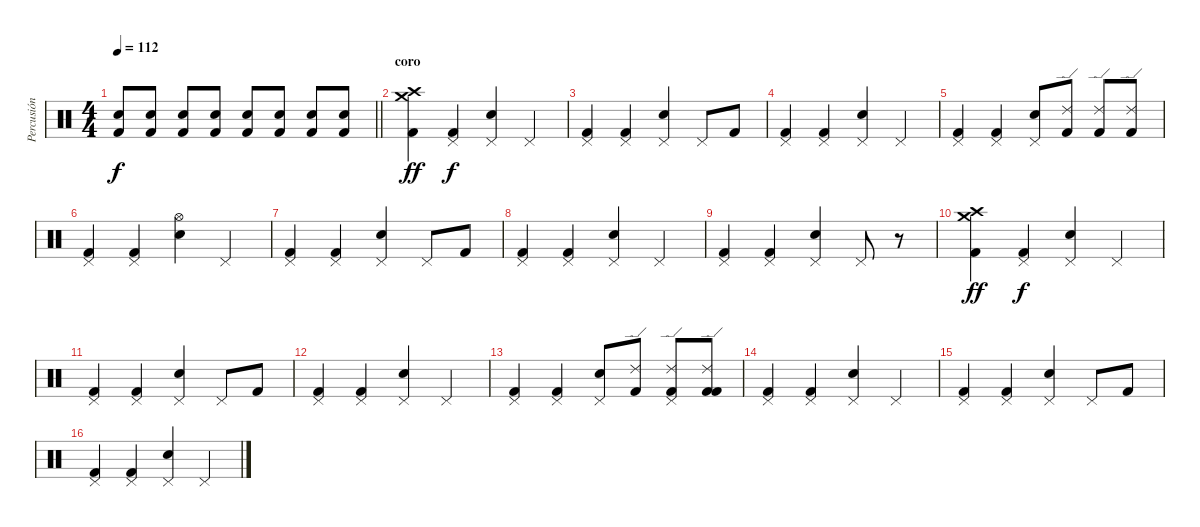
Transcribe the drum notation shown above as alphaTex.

\track ("Percusión" "Percusión") {instrument percussion}
\staff {score}
\articulation defaults
\ts (4 4)
\tempo 112
\clef neutral
\barLineRight lightlight
\ks c
("Kick (hit) 2" "Snare (hit) 2").8{dy f} ("Kick (hit) 2" "Snare (hit) 2").8 ("Kick (hit) 2" "Snare (hit) 2").8 ("Kick (hit) 2" "Snare (hit) 2").8 ("Kick (hit) 2" "Snare (hit) 2").8 ("Kick (hit) 2" "Snare (hit) 2").8 ("Kick (hit) 2" "Snare (hit) 2").8 ("Kick (hit) 2" "Snare (hit) 2").8 |
\section ("" "coro")
("Kick (hit) 2" "Crash medium (hit)" "Crash high (hit)").4{dy ff} ("Kick (hit) 2" "Pedal Hi-Hat (hit)").4{dy f} ("Electric Snare (hit)" "Pedal Hi-Hat (hit)").4 "Pedal Hi-Hat (hit)".4 |
("Kick (hit) 2" "Pedal Hi-Hat (hit)").4 ("Kick (hit) 2" "Pedal Hi-Hat (hit)").4 ("Electric Snare (hit)" "Pedal Hi-Hat (hit)").4 "Pedal Hi-Hat (hit)".8 "Kick (hit) 2".8 |
("Kick (hit) 2" "Pedal Hi-Hat (hit)").4 ("Kick (hit) 2" "Pedal Hi-Hat (hit)").4 ("Electric Snare (hit)" "Pedal Hi-Hat (hit)").4 "Pedal Hi-Hat (hit)".4 |
("Kick (hit) 2" "Pedal Hi-Hat (hit)").4 ("Kick (hit) 2" "Pedal Hi-Hat (hit)").4 ("Electric Snare (hit)" "Pedal Hi-Hat (hit)").8 ("Ride (edge) 2" "Kick (hit) 2").8 ("Ride (edge) 2" "Kick (hit) 2").8 ("Kick (hit) 2" "Ride (edge) 2").8 |
("Kick (hit) 2" "Pedal Hi-Hat (hit)").4 ("Kick (hit) 2" "Pedal Hi-Hat (hit)").4 ("Electric Snare (hit)" "Hi-Hat (open)").4 "Pedal Hi-Hat (hit)".4 |
("Kick (hit) 2" "Pedal Hi-Hat (hit)").4 ("Kick (hit) 2" "Pedal Hi-Hat (hit)").4 ("Electric Snare (hit)" "Pedal Hi-Hat (hit)").4 "Pedal Hi-Hat (hit)".8 "Kick (hit) 2".8 |
("Kick (hit) 2" "Pedal Hi-Hat (hit)").4 ("Kick (hit) 2" "Pedal Hi-Hat (hit)").4 ("Electric Snare (hit)" "Pedal Hi-Hat (hit)").4 "Pedal Hi-Hat (hit)".4 |
("Kick (hit) 2" "Pedal Hi-Hat (hit)").4 ("Kick (hit) 2" "Pedal Hi-Hat (hit)").4 ("Electric Snare (hit)" "Pedal Hi-Hat (hit)").4 "Pedal Hi-Hat (hit)".8 r.8 |
("Kick (hit) 2" "Crash medium (hit)" "Crash high (hit)").4{dy ff} ("Kick (hit) 2" "Pedal Hi-Hat (hit)").4{dy f} ("Electric Snare (hit)" "Pedal Hi-Hat (hit)").4 "Pedal Hi-Hat (hit)".4 |
("Kick (hit) 2" "Pedal Hi-Hat (hit)").4 ("Kick (hit) 2" "Pedal Hi-Hat (hit)").4 ("Electric Snare (hit)" "Pedal Hi-Hat (hit)").4 "Pedal Hi-Hat (hit)".8 "Kick (hit) 2".8 |
("Kick (hit) 2" "Pedal Hi-Hat (hit)").4 ("Kick (hit) 2" "Pedal Hi-Hat (hit)").4 ("Electric Snare (hit)" "Pedal Hi-Hat (hit)").4 "Pedal Hi-Hat (hit)".4 |
("Kick (hit) 2" "Pedal Hi-Hat (hit)").4 ("Kick (hit) 2" "Pedal Hi-Hat (hit)").4 ("Electric Snare (hit)" "Pedal Hi-Hat (hit)").8 ("Kick (hit) 2" "Ride (edge) 2").8 ("Pedal Hi-Hat (hit)" "Kick (hit) 2" "Ride (edge) 2").8 ("Kick (hit) 2" "Kick (hit) 2" "Ride (edge) 2").8 |
("Kick (hit) 2" "Pedal Hi-Hat (hit)").4 ("Kick (hit) 2" "Pedal Hi-Hat (hit)").4 ("Electric Snare (hit)" "Pedal Hi-Hat (hit)").4 "Pedal Hi-Hat (hit)".4 |
("Kick (hit) 2" "Pedal Hi-Hat (hit)").4 ("Kick (hit) 2" "Pedal Hi-Hat (hit)").4 ("Electric Snare (hit)" "Pedal Hi-Hat (hit)").4 "Pedal Hi-Hat (hit)".8 "Kick (hit) 2".8 |
("Kick (hit) 2" "Pedal Hi-Hat (hit)").4 ("Kick (hit) 2" "Pedal Hi-Hat (hit)").4 ("Electric Snare (hit)" "Pedal Hi-Hat (hit)").4 "Pedal Hi-Hat (hit)".4
